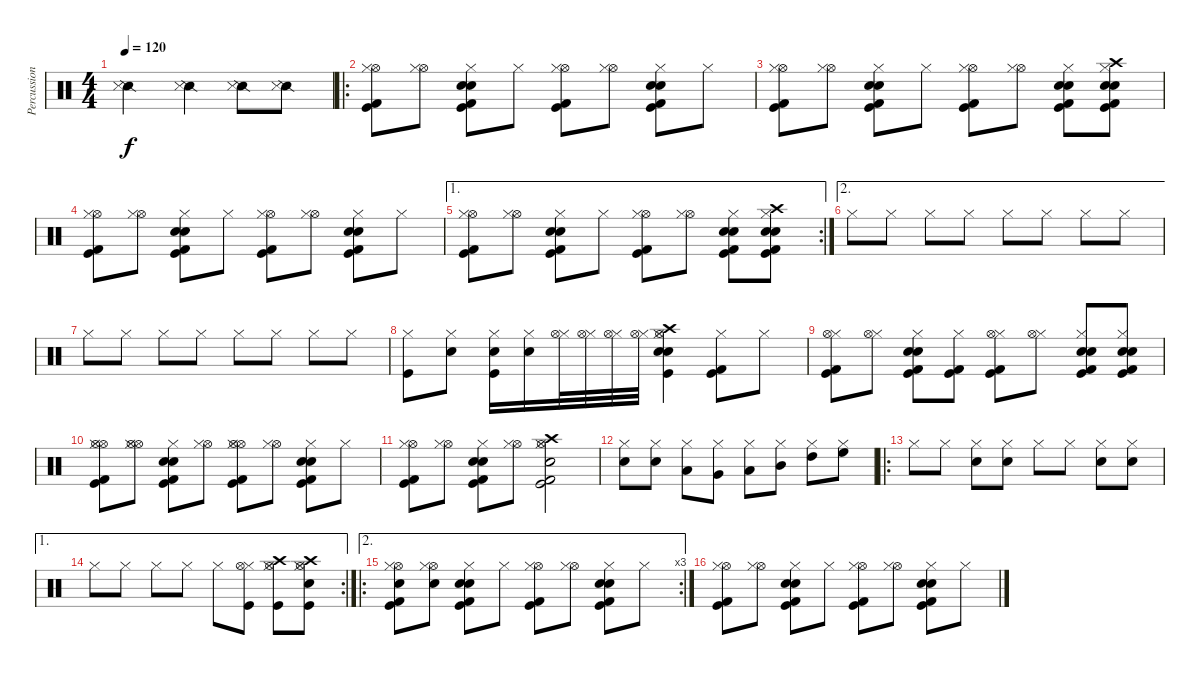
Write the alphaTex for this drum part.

\track ("Percussion" "Percussion") {instrument percussion}
\staff {score}
\articulation defaults
\ts (4 4)
\tempo 120
\clef neutral
\ks c
("Snare (side stick) 2" "Snare (side stick) 3").2{dy f} ("Snare (side stick) 2" "Snare (side stick) 3").4 ("Snare (side stick) 2" "Snare (side stick) 3").8 ("Snare (side stick) 2" "Snare (side stick) 3").8 |
\ro
("Hi-Hat (open)" "Kick (hit)" "Kick (hit) 2" "Hi-Hat (closed)").8 ("Hi-Hat (open)" "Hi-Hat (closed)").8 ("Electric Snare (hit)" "Electric Snare (hit)" "Kick (hit)" "Kick (hit) 2" "Hi-Hat (closed)").8 "Hi-Hat (closed)".8 ("Hi-Hat (open)" "Kick (hit)" "Kick (hit) 2" "Hi-Hat (closed)").8 ("Hi-Hat (open)" "Hi-Hat (closed)").8 ("Electric Snare (hit)" "Electric Snare (hit)" "Kick (hit)" "Kick (hit) 2" "Hi-Hat (closed)").8 "Hi-Hat (closed)".8 |
("Hi-Hat (open)" "Kick (hit)" "Kick (hit) 2" "Hi-Hat (closed)").8 ("Hi-Hat (open)" "Hi-Hat (closed)").8 ("Electric Snare (hit)" "Electric Snare (hit)" "Kick (hit)" "Kick (hit) 2" "Hi-Hat (closed)").8 "Hi-Hat (closed)".8 ("Hi-Hat (open)" "Kick (hit)" "Kick (hit) 2" "Hi-Hat (closed)").8 ("Hi-Hat (open)" "Hi-Hat (closed)").8 ("Electric Snare (hit)" "Electric Snare (hit)" "Kick (hit)" "Kick (hit) 2" "Hi-Hat (closed)").8 ("Crash high (hit)" "Electric Snare (hit)" "Electric Snare (hit)" "Kick (hit)" "Kick (hit) 2" "Hi-Hat (closed)").8 |
("Hi-Hat (open)" "Kick (hit)" "Kick (hit) 2" "Hi-Hat (closed)").8 ("Hi-Hat (open)" "Hi-Hat (closed)").8 ("Electric Snare (hit)" "Electric Snare (hit)" "Kick (hit)" "Kick (hit) 2" "Hi-Hat (closed)").8 "Hi-Hat (closed)".8 ("Hi-Hat (open)" "Kick (hit)" "Kick (hit) 2" "Hi-Hat (closed)").8 ("Hi-Hat (open)" "Hi-Hat (closed)").8 ("Electric Snare (hit)" "Electric Snare (hit)" "Kick (hit)" "Kick (hit) 2" "Hi-Hat (closed)").8 "Hi-Hat (closed)".8 |
\ae 1
\rc 2
("Hi-Hat (open)" "Kick (hit)" "Kick (hit) 2" "Hi-Hat (closed)").8 ("Hi-Hat (open)" "Hi-Hat (closed)").8 ("Electric Snare (hit)" "Electric Snare (hit)" "Kick (hit)" "Kick (hit) 2" "Hi-Hat (closed)").8 "Hi-Hat (closed)".8 ("Hi-Hat (open)" "Kick (hit)" "Kick (hit) 2" "Hi-Hat (closed)").8 ("Hi-Hat (open)" "Hi-Hat (closed)").8 ("Electric Snare (hit)" "Electric Snare (hit)" "Kick (hit)" "Kick (hit) 2" "Hi-Hat (closed)").8 ("Crash high (hit)" "Electric Snare (hit)" "Electric Snare (hit)" "Kick (hit)" "Kick (hit) 2" "Hi-Hat (closed)").8 |
\ae 2 "Hi-Hat (closed)".8 "Hi-Hat (closed)".8 "Hi-Hat (closed)".8 "Hi-Hat (closed)".8 "Hi-Hat (closed)".8 "Hi-Hat (closed)".8 "Hi-Hat (closed)".8 "Hi-Hat (closed)".8
|
"Hi-Hat (closed)".8 "Hi-Hat (closed)".8 "Hi-Hat (closed)".8 "Hi-Hat (closed)".8 "Hi-Hat (closed)".8 "Hi-Hat (closed)".8 "Hi-Hat (closed)".8 "Hi-Hat (closed)".8 |
("Hi-Hat (closed)" "Kick (hit)").8 ("Hi-Hat (closed)" "Electric Snare (hit)").8 ("Hi-Hat (closed)" "Electric Snare (hit)" "Kick (hit)").16 ("Hi-Hat (closed)" "Electric Snare (hit)").16 ("Hi-Hat (closed)" "Hi-Hat (open)").32 ("Hi-Hat (closed)" "Hi-Hat (open)").32 ("Hi-Hat (closed)" "Hi-Hat (open)").32 ("Hi-Hat (closed)" "Hi-Hat (open)").32 ("Hi-Hat (closed)" "Electric Snare (hit)" "Electric Snare (hit)" "Hi-Hat (open)" "Crash high (hit)" "Kick (hit)").4 ("Hi-Hat (closed)" "Kick (hit) 2" "Kick (hit)").8 "Hi-Hat (closed)".8 |
("Hi-Hat (closed)" "Hi-Hat (open)" "Kick (hit) 2" "Kick (hit)").8 ("Hi-Hat (closed)" "Hi-Hat (open)").8 ("Hi-Hat (closed)" "Electric Snare (hit)" "Electric Snare (hit)" "Kick (hit) 2" "Kick (hit)").8 ("Hi-Hat (closed)" "Kick (hit)" "Kick (hit) 2").8 ("Hi-Hat (closed)" "Hi-Hat (open)" "Kick (hit) 2" "Kick (hit)").8 ("Hi-Hat (closed)" "Hi-Hat (open)").8 ("Hi-Hat (closed)" "Electric Snare (hit)" "Electric Snare (hit)" "Kick (hit)" "Kick (hit) 2").8 ("Hi-Hat (closed)" "Electric Snare (hit)" "Electric Snare (hit)" "Kick (hit)" "Kick (hit) 2").8 |
("Hi-Hat (open)" "Hi-Hat (open)" "Kick (hit)" "Kick (hit) 2" "Hi-Hat (closed)").8 ("Hi-Hat (open)" "Hi-Hat (open)" "Hi-Hat (closed)").8 ("Electric Snare (hit)" "Electric Snare (hit)" "Kick (hit)" "Kick (hit) 2" "Hi-Hat (closed)").8 ("Hi-Hat (open)" "Hi-Hat (closed)").8 ("Hi-Hat (open)" "Hi-Hat (open)" "Kick (hit)" "Kick (hit) 2" "Hi-Hat (closed)").8 ("Hi-Hat (open)" "Hi-Hat (closed)").8 ("Electric Snare (hit)" "Electric Snare (hit)" "Kick (hit)" "Kick (hit) 2" "Hi-Hat (closed)").8 "Hi-Hat (closed)".8 |
("Hi-Hat (open)" "Kick (hit)" "Kick (hit) 2" "Hi-Hat (closed)").8 ("Hi-Hat (open)" "Hi-Hat (closed)").8 ("Electric Snare (hit)" "Electric Snare (hit)" "Kick (hit)" "Kick (hit) 2" "Hi-Hat (closed)").8 ("Hi-Hat (open)" "Hi-Hat (closed)").8 ("Hi-Hat (open)" "Electric Snare (hit)" "Crash high (hit)" "Kick (hit)" "Kick (hit) 2" "Hi-Hat (closed)").2 |
("Hi-Hat (closed)" "Electric Snare (hit)").8 ("Hi-Hat (closed)" "Electric Snare (hit)").8 ("Hi-Hat (closed)" "Low Floor Tom (hit)").8 ("Hi-Hat (closed)" "Very Low Tom (hit)").8 ("Hi-Hat (closed)" "Low Tom (hit)").8 ("Hi-Hat (closed)" "Mid Tom (hit)").8 ("Hi-Hat (closed)" "High Tom (hit)").8 ("Hi-Hat (closed)" "High Floor Tom (hit)").8 |
\ro "Hi-Hat (closed)".8 "Hi-Hat (closed)".8
("Hi-Hat (closed)" "Electric Snare (hit)").8 ("Hi-Hat (closed)" "Electric Snare (hit)").8 "Hi-Hat (closed)".8 "Hi-Hat (closed)".8 ("Hi-Hat (closed)" "Electric Snare (hit)").8 ("Hi-Hat (closed)" "Electric Snare (hit)").8 |
\ae 1
\rc 2 "Hi-Hat (closed)".8 "Hi-Hat (closed)".8 "Hi-Hat (closed)".8 "Hi-Hat (closed)".8 "Hi-Hat (closed)".8
("Hi-Hat (closed)" "Hi-Hat (open)" "Kick (hit)").8 ("Hi-Hat (closed)" "Crash high (hit)" "Hi-Hat (open)" "Kick (hit)").8 ("Hi-Hat (closed)" "Electric Snare (hit)" "Crash high (hit)" "Hi-Hat (open)" "Kick (hit)").8 |
\ae 2
\ro
\rc 3
("Hi-Hat (open)" "Electric Snare (hit)" "Kick (hit)" "Kick (hit) 2" "Hi-Hat (closed)").8 ("Hi-Hat (open)" "Electric Snare (hit)" "Hi-Hat (closed)").8 ("Electric Snare (hit)" "Electric Snare (hit)" "Kick (hit)" "Kick (hit) 2" "Hi-Hat (closed)").8 "Hi-Hat (closed)".8 ("Hi-Hat (open)" "Kick (hit)" "Kick (hit) 2" "Hi-Hat (closed)").8 ("Hi-Hat (open)" "Hi-Hat (closed)").8 ("Electric Snare (hit)" "Electric Snare (hit)" "Kick (hit)" "Kick (hit) 2" "Hi-Hat (closed)").8 "Hi-Hat (closed)".8 |
("Hi-Hat (open)" "Kick (hit)" "Kick (hit) 2" "Hi-Hat (closed)").8 ("Hi-Hat (open)" "Hi-Hat (closed)").8 ("Electric Snare (hit)" "Electric Snare (hit)" "Kick (hit)" "Kick (hit) 2" "Hi-Hat (closed)").8 "Hi-Hat (closed)".8 ("Hi-Hat (open)" "Kick (hit)" "Kick (hit) 2" "Hi-Hat (closed)").8 ("Hi-Hat (open)" "Hi-Hat (closed)").8 ("Electric Snare (hit)" "Electric Snare (hit)" "Kick (hit)" "Kick (hit) 2" "Hi-Hat (closed)").8 "Hi-Hat (closed)".8
